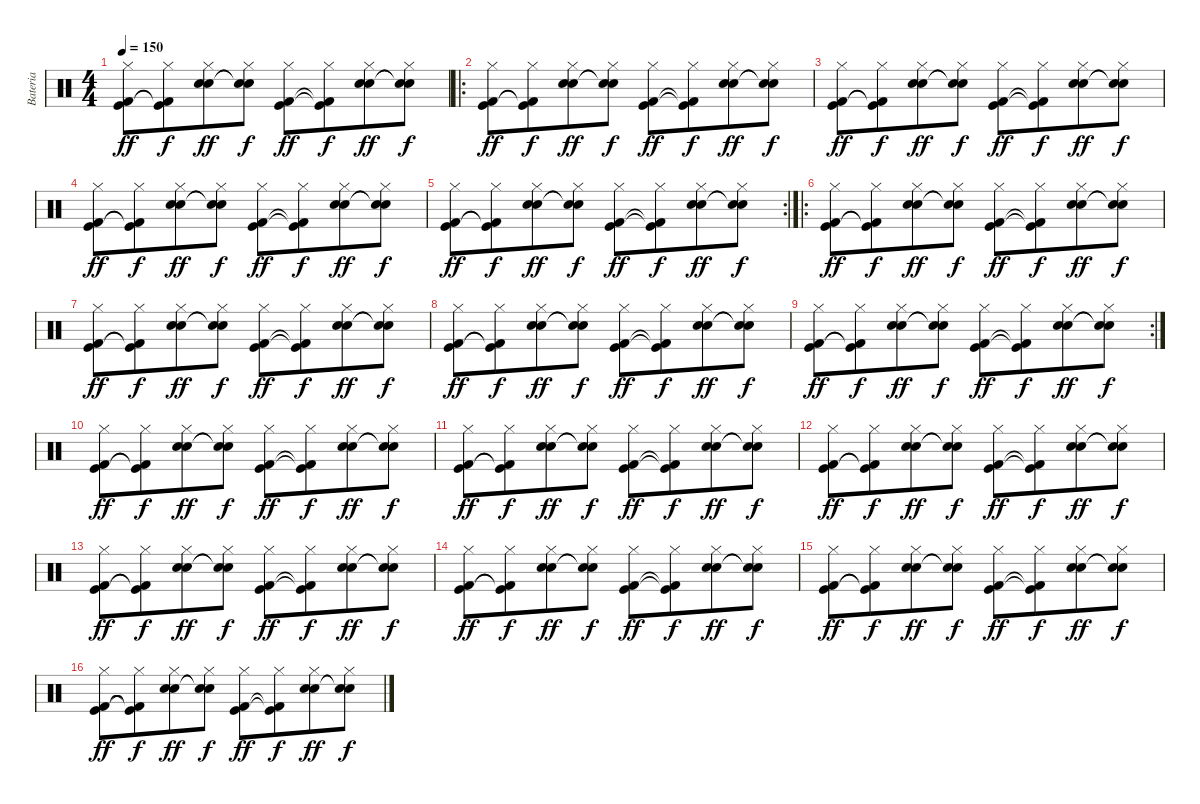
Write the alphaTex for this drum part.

\track ("Bateria" "Bateria") {instrument percussion}
\staff {score}
\articulation defaults
\ts (4 4)
\tempo 150
\clef neutral
\ks c
("Hi-Hat (closed)" "Kick (hit) 2" "Kick (hit)").8{dy ff} ("Hi-Hat (closed)" "Kick (hit)"{t} "Kick (hit) 2"{t}).8{dy f beam merge} ("Hi-Hat (closed)" "Snare (hit) 2" "Electric Snare (hit)").8{dy ff} ("Hi-Hat (closed)" "Snare (hit) 2"{t} "Electric Snare (hit)"{t}).8{dy f} ("Hi-Hat (closed)" "Kick (hit) 2" "Kick (hit)").8{dy ff} ("Hi-Hat (closed)" "Kick (hit) 2"{t} "Kick (hit)"{t}).8{dy f beam merge} ("Hi-Hat (closed)" "Snare (hit) 2" "Electric Snare (hit)").8{dy ff} ("Hi-Hat (closed)" "Snare (hit) 2"{t} "Electric Snare (hit)"{t}).8{dy f} |
\ro
("Hi-Hat (closed)" "Kick (hit) 2" "Kick (hit)").8{dy ff} ("Hi-Hat (closed)" "Kick (hit)"{t} "Kick (hit) 2"{t}).8{dy f beam merge} ("Hi-Hat (closed)" "Snare (hit) 2" "Electric Snare (hit)").8{dy ff} ("Hi-Hat (closed)" "Snare (hit) 2"{t} "Electric Snare (hit)"{t}).8{dy f} ("Hi-Hat (closed)" "Kick (hit) 2" "Kick (hit)").8{dy ff} ("Hi-Hat (closed)" "Kick (hit) 2"{t} "Kick (hit)"{t}).8{dy f beam merge} ("Hi-Hat (closed)" "Snare (hit) 2" "Electric Snare (hit)").8{dy ff} ("Hi-Hat (closed)" "Snare (hit) 2"{t} "Electric Snare (hit)"{t}).8{dy f} |
("Hi-Hat (closed)" "Kick (hit) 2" "Kick (hit)").8{dy ff} ("Hi-Hat (closed)" "Kick (hit)"{t} "Kick (hit) 2"{t}).8{dy f beam merge} ("Hi-Hat (closed)" "Snare (hit) 2" "Electric Snare (hit)").8{dy ff} ("Hi-Hat (closed)" "Snare (hit) 2"{t} "Electric Snare (hit)"{t}).8{dy f} ("Hi-Hat (closed)" "Kick (hit) 2" "Kick (hit)").8{dy ff} ("Hi-Hat (closed)" "Kick (hit) 2"{t} "Kick (hit)"{t}).8{dy f beam merge} ("Hi-Hat (closed)" "Snare (hit) 2" "Electric Snare (hit)").8{dy ff} ("Hi-Hat (closed)" "Snare (hit) 2"{t} "Electric Snare (hit)"{t}).8{dy f} |
("Hi-Hat (closed)" "Kick (hit) 2" "Kick (hit)").8{dy ff} ("Hi-Hat (closed)" "Kick (hit)"{t} "Kick (hit) 2"{t}).8{dy f beam merge} ("Hi-Hat (closed)" "Snare (hit) 2" "Electric Snare (hit)").8{dy ff} ("Hi-Hat (closed)" "Snare (hit) 2"{t} "Electric Snare (hit)"{t}).8{dy f} ("Hi-Hat (closed)" "Kick (hit) 2" "Kick (hit)").8{dy ff} ("Hi-Hat (closed)" "Kick (hit) 2"{t} "Kick (hit)"{t}).8{dy f beam merge} ("Hi-Hat (closed)" "Snare (hit) 2" "Electric Snare (hit)").8{dy ff} ("Hi-Hat (closed)" "Snare (hit) 2"{t} "Electric Snare (hit)"{t}).8{dy f} |
\rc 2
("Hi-Hat (closed)" "Kick (hit) 2" "Kick (hit)").8{dy ff} ("Hi-Hat (closed)" "Kick (hit)"{t} "Kick (hit) 2"{t}).8{dy f beam merge} ("Hi-Hat (closed)" "Snare (hit) 2" "Electric Snare (hit)").8{dy ff} ("Hi-Hat (closed)" "Snare (hit) 2"{t} "Electric Snare (hit)"{t}).8{dy f} ("Hi-Hat (closed)" "Kick (hit) 2" "Kick (hit)").8{dy ff} ("Hi-Hat (closed)" "Kick (hit) 2"{t} "Kick (hit)"{t}).8{dy f beam merge} ("Hi-Hat (closed)" "Snare (hit) 2" "Electric Snare (hit)").8{dy ff} ("Hi-Hat (closed)" "Snare (hit) 2"{t} "Electric Snare (hit)"{t}).8{dy f} |
\ro
("Hi-Hat (closed)" "Kick (hit) 2" "Kick (hit)").8{dy ff} ("Hi-Hat (closed)" "Kick (hit)"{t} "Kick (hit) 2"{t}).8{dy f beam merge} ("Hi-Hat (closed)" "Snare (hit) 2" "Electric Snare (hit)").8{dy ff} ("Hi-Hat (closed)" "Snare (hit) 2"{t} "Electric Snare (hit)"{t}).8{dy f} ("Hi-Hat (closed)" "Kick (hit) 2" "Kick (hit)").8{dy ff} ("Hi-Hat (closed)" "Kick (hit) 2"{t} "Kick (hit)"{t}).8{dy f beam merge} ("Hi-Hat (closed)" "Snare (hit) 2" "Electric Snare (hit)").8{dy ff} ("Hi-Hat (closed)" "Snare (hit) 2"{t} "Electric Snare (hit)"{t}).8{dy f} |
("Hi-Hat (closed)" "Kick (hit) 2" "Kick (hit)").8{dy ff} ("Hi-Hat (closed)" "Kick (hit)"{t} "Kick (hit) 2"{t}).8{dy f beam merge} ("Hi-Hat (closed)" "Snare (hit) 2" "Electric Snare (hit)").8{dy ff} ("Hi-Hat (closed)" "Snare (hit) 2"{t} "Electric Snare (hit)"{t}).8{dy f} ("Hi-Hat (closed)" "Kick (hit) 2" "Kick (hit)").8{dy ff} ("Hi-Hat (closed)" "Kick (hit) 2"{t} "Kick (hit)"{t}).8{dy f beam merge} ("Hi-Hat (closed)" "Snare (hit) 2" "Electric Snare (hit)").8{dy ff} ("Hi-Hat (closed)" "Snare (hit) 2"{t} "Electric Snare (hit)"{t}).8{dy f} |
("Hi-Hat (closed)" "Kick (hit) 2" "Kick (hit)").8{dy ff} ("Hi-Hat (closed)" "Kick (hit)"{t} "Kick (hit) 2"{t}).8{dy f beam merge} ("Hi-Hat (closed)" "Snare (hit) 2" "Electric Snare (hit)").8{dy ff} ("Hi-Hat (closed)" "Snare (hit) 2"{t} "Electric Snare (hit)"{t}).8{dy f} ("Hi-Hat (closed)" "Kick (hit) 2" "Kick (hit)").8{dy ff} ("Hi-Hat (closed)" "Kick (hit) 2"{t} "Kick (hit)"{t}).8{dy f beam merge} ("Hi-Hat (closed)" "Snare (hit) 2" "Electric Snare (hit)").8{dy ff} ("Hi-Hat (closed)" "Snare (hit) 2"{t} "Electric Snare (hit)"{t}).8{dy f} |
\rc 2
("Hi-Hat (closed)" "Kick (hit) 2" "Kick (hit)").8{dy ff} ("Hi-Hat (closed)" "Kick (hit)"{t} "Kick (hit) 2"{t}).8{dy f beam merge} ("Hi-Hat (closed)" "Snare (hit) 2" "Electric Snare (hit)").8{dy ff} ("Hi-Hat (closed)" "Snare (hit) 2"{t} "Electric Snare (hit)"{t}).8{dy f} ("Hi-Hat (closed)" "Kick (hit) 2" "Kick (hit)").8{dy ff} ("Hi-Hat (closed)" "Kick (hit) 2"{t} "Kick (hit)"{t}).8{dy f beam merge} ("Hi-Hat (closed)" "Snare (hit) 2" "Electric Snare (hit)").8{dy ff} ("Hi-Hat (closed)" "Snare (hit) 2"{t} "Electric Snare (hit)"{t}).8{dy f} |
("Hi-Hat (closed)" "Kick (hit) 2" "Kick (hit)").8{dy ff} ("Hi-Hat (closed)" "Kick (hit)"{t} "Kick (hit) 2"{t}).8{dy f beam merge} ("Hi-Hat (closed)" "Snare (hit) 2" "Electric Snare (hit)").8{dy ff} ("Hi-Hat (closed)" "Snare (hit) 2"{t} "Electric Snare (hit)"{t}).8{dy f} ("Hi-Hat (closed)" "Kick (hit) 2" "Kick (hit)").8{dy ff} ("Hi-Hat (closed)" "Kick (hit) 2"{t} "Kick (hit)"{t}).8{dy f beam merge} ("Hi-Hat (closed)" "Snare (hit) 2" "Electric Snare (hit)").8{dy ff} ("Hi-Hat (closed)" "Snare (hit) 2"{t} "Electric Snare (hit)"{t}).8{dy f} |
("Hi-Hat (closed)" "Kick (hit) 2" "Kick (hit)").8{dy ff} ("Hi-Hat (closed)" "Kick (hit)"{t} "Kick (hit) 2"{t}).8{dy f beam merge} ("Hi-Hat (closed)" "Snare (hit) 2" "Electric Snare (hit)").8{dy ff} ("Hi-Hat (closed)" "Snare (hit) 2"{t} "Electric Snare (hit)"{t}).8{dy f} ("Hi-Hat (closed)" "Kick (hit) 2" "Kick (hit)").8{dy ff} ("Hi-Hat (closed)" "Kick (hit) 2"{t} "Kick (hit)"{t}).8{dy f beam merge} ("Hi-Hat (closed)" "Snare (hit) 2" "Electric Snare (hit)").8{dy ff} ("Hi-Hat (closed)" "Snare (hit) 2"{t} "Electric Snare (hit)"{t}).8{dy f} |
("Hi-Hat (closed)" "Kick (hit) 2" "Kick (hit)").8{dy ff} ("Hi-Hat (closed)" "Kick (hit)"{t} "Kick (hit) 2"{t}).8{dy f beam merge} ("Hi-Hat (closed)" "Snare (hit) 2" "Electric Snare (hit)").8{dy ff} ("Hi-Hat (closed)" "Snare (hit) 2"{t} "Electric Snare (hit)"{t}).8{dy f} ("Hi-Hat (closed)" "Kick (hit) 2" "Kick (hit)").8{dy ff} ("Hi-Hat (closed)" "Kick (hit) 2"{t} "Kick (hit)"{t}).8{dy f beam merge} ("Hi-Hat (closed)" "Snare (hit) 2" "Electric Snare (hit)").8{dy ff} ("Hi-Hat (closed)" "Snare (hit) 2"{t} "Electric Snare (hit)"{t}).8{dy f} |
("Hi-Hat (closed)" "Kick (hit) 2" "Kick (hit)").8{dy ff} ("Hi-Hat (closed)" "Kick (hit)"{t} "Kick (hit) 2"{t}).8{dy f beam merge} ("Hi-Hat (closed)" "Snare (hit) 2" "Electric Snare (hit)").8{dy ff} ("Hi-Hat (closed)" "Snare (hit) 2"{t} "Electric Snare (hit)"{t}).8{dy f} ("Hi-Hat (closed)" "Kick (hit) 2" "Kick (hit)").8{dy ff} ("Hi-Hat (closed)" "Kick (hit) 2"{t} "Kick (hit)"{t}).8{dy f beam merge} ("Hi-Hat (closed)" "Snare (hit) 2" "Electric Snare (hit)").8{dy ff} ("Hi-Hat (closed)" "Snare (hit) 2"{t} "Electric Snare (hit)"{t}).8{dy f} |
("Hi-Hat (closed)" "Kick (hit) 2" "Kick (hit)").8{dy ff} ("Hi-Hat (closed)" "Kick (hit)"{t} "Kick (hit) 2"{t}).8{dy f beam merge} ("Hi-Hat (closed)" "Snare (hit) 2" "Electric Snare (hit)").8{dy ff} ("Hi-Hat (closed)" "Snare (hit) 2"{t} "Electric Snare (hit)"{t}).8{dy f} ("Hi-Hat (closed)" "Kick (hit) 2" "Kick (hit)").8{dy ff} ("Hi-Hat (closed)" "Kick (hit) 2"{t} "Kick (hit)"{t}).8{dy f beam merge} ("Hi-Hat (closed)" "Snare (hit) 2" "Electric Snare (hit)").8{dy ff} ("Hi-Hat (closed)" "Snare (hit) 2"{t} "Electric Snare (hit)"{t}).8{dy f} |
("Hi-Hat (closed)" "Kick (hit) 2" "Kick (hit)").8{dy ff} ("Hi-Hat (closed)" "Kick (hit)"{t} "Kick (hit) 2"{t}).8{dy f beam merge} ("Hi-Hat (closed)" "Snare (hit) 2" "Electric Snare (hit)").8{dy ff} ("Hi-Hat (closed)" "Snare (hit) 2"{t} "Electric Snare (hit)"{t}).8{dy f} ("Hi-Hat (closed)" "Kick (hit) 2" "Kick (hit)").8{dy ff} ("Hi-Hat (closed)" "Kick (hit) 2"{t} "Kick (hit)"{t}).8{dy f beam merge} ("Hi-Hat (closed)" "Snare (hit) 2" "Electric Snare (hit)").8{dy ff} ("Hi-Hat (closed)" "Snare (hit) 2"{t} "Electric Snare (hit)"{t}).8{dy f} |
("Hi-Hat (closed)" "Kick (hit) 2" "Kick (hit)").8{dy ff} ("Hi-Hat (closed)" "Kick (hit)"{t} "Kick (hit) 2"{t}).8{dy f beam merge} ("Hi-Hat (closed)" "Snare (hit) 2" "Electric Snare (hit)").8{dy ff} ("Hi-Hat (closed)" "Snare (hit) 2"{t} "Electric Snare (hit)"{t}).8{dy f} ("Hi-Hat (closed)" "Kick (hit) 2" "Kick (hit)").8{dy ff} ("Hi-Hat (closed)" "Kick (hit) 2"{t} "Kick (hit)"{t}).8{dy f beam merge} ("Hi-Hat (closed)" "Snare (hit) 2" "Electric Snare (hit)").8{dy ff} ("Hi-Hat (closed)" "Snare (hit) 2"{t} "Electric Snare (hit)"{t}).8{dy f}
